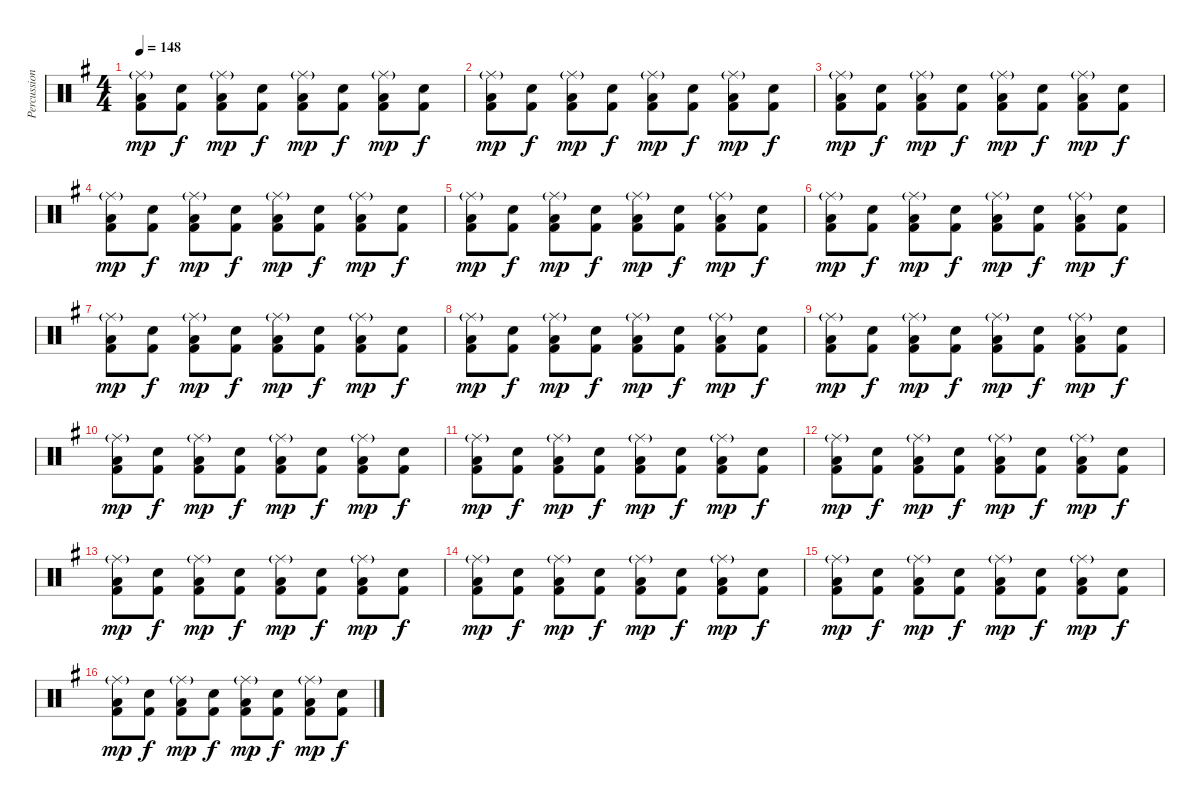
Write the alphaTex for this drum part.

\track ("Percussions" "Percussion") {instrument percussion}
\staff {score}
\articulation defaults
\ts (4 4)
\tempo 148
\clef neutral
\ks g
("Ride (middle)"{g} "Low Floor Tom (hit)" "Kick (hit) 2").8{dy mp} ("Electric Snare (hit)" "Kick (hit) 2").8{dy f} ("Ride (middle)"{g} "Low Floor Tom (hit)" "Kick (hit) 2").8{dy mp} ("Electric Snare (hit)" "Kick (hit) 2").8{dy f} ("Ride (middle)"{g} "Low Floor Tom (hit)" "Kick (hit) 2").8{dy mp} ("Electric Snare (hit)" "Kick (hit) 2").8{dy f} ("Ride (middle)"{g} "Low Floor Tom (hit)" "Kick (hit) 2").8{dy mp} ("Electric Snare (hit)" "Kick (hit) 2").8{dy f} |
("Ride (middle)"{g} "Low Floor Tom (hit)" "Kick (hit) 2").8{dy mp} ("Electric Snare (hit)" "Kick (hit) 2").8{dy f} ("Ride (middle)"{g} "Low Floor Tom (hit)" "Kick (hit) 2").8{dy mp} ("Electric Snare (hit)" "Kick (hit) 2").8{dy f} ("Ride (middle)"{g} "Low Floor Tom (hit)" "Kick (hit) 2").8{dy mp} ("Electric Snare (hit)" "Kick (hit) 2").8{dy f} ("Ride (middle)"{g} "Low Floor Tom (hit)" "Kick (hit) 2").8{dy mp} ("Electric Snare (hit)" "Kick (hit) 2").8{dy f} |
("Ride (middle)"{g} "Low Floor Tom (hit)" "Kick (hit) 2").8{dy mp} ("Electric Snare (hit)" "Kick (hit) 2").8{dy f} ("Ride (middle)"{g} "Low Floor Tom (hit)" "Kick (hit) 2").8{dy mp} ("Electric Snare (hit)" "Kick (hit) 2").8{dy f} ("Ride (middle)"{g} "Low Floor Tom (hit)" "Kick (hit) 2").8{dy mp} ("Electric Snare (hit)" "Kick (hit) 2").8{dy f} ("Ride (middle)"{g} "Low Floor Tom (hit)" "Kick (hit) 2").8{dy mp} ("Electric Snare (hit)" "Kick (hit) 2").8{dy f} |
("Ride (middle)"{g} "Low Floor Tom (hit)" "Kick (hit) 2").8{dy mp} ("Electric Snare (hit)" "Kick (hit) 2").8{dy f} ("Ride (middle)"{g} "Low Floor Tom (hit)" "Kick (hit) 2").8{dy mp} ("Electric Snare (hit)" "Kick (hit) 2").8{dy f} ("Ride (middle)"{g} "Low Floor Tom (hit)" "Kick (hit) 2").8{dy mp} ("Electric Snare (hit)" "Kick (hit) 2").8{dy f} ("Ride (middle)"{g} "Low Floor Tom (hit)" "Kick (hit) 2").8{dy mp} ("Electric Snare (hit)" "Kick (hit) 2").8{dy f} |
("Ride (middle)"{g} "Low Floor Tom (hit)" "Kick (hit) 2").8{dy mp} ("Electric Snare (hit)" "Kick (hit) 2").8{dy f} ("Ride (middle)"{g} "Low Floor Tom (hit)" "Kick (hit) 2").8{dy mp} ("Electric Snare (hit)" "Kick (hit) 2").8{dy f} ("Ride (middle)"{g} "Low Floor Tom (hit)" "Kick (hit) 2").8{dy mp} ("Electric Snare (hit)" "Kick (hit) 2").8{dy f} ("Ride (middle)"{g} "Low Floor Tom (hit)" "Kick (hit) 2").8{dy mp} ("Electric Snare (hit)" "Kick (hit) 2").8{dy f} |
("Ride (middle)"{g} "Low Floor Tom (hit)" "Kick (hit) 2").8{dy mp} ("Electric Snare (hit)" "Kick (hit) 2").8{dy f} ("Ride (middle)"{g} "Low Floor Tom (hit)" "Kick (hit) 2").8{dy mp} ("Electric Snare (hit)" "Kick (hit) 2").8{dy f} ("Ride (middle)"{g} "Low Floor Tom (hit)" "Kick (hit) 2").8{dy mp} ("Electric Snare (hit)" "Kick (hit) 2").8{dy f} ("Ride (middle)"{g} "Low Floor Tom (hit)" "Kick (hit) 2").8{dy mp} ("Electric Snare (hit)" "Kick (hit) 2").8{dy f} |
("Ride (middle)"{g} "Low Floor Tom (hit)" "Kick (hit) 2").8{dy mp} ("Electric Snare (hit)" "Kick (hit) 2").8{dy f} ("Ride (middle)"{g} "Low Floor Tom (hit)" "Kick (hit) 2").8{dy mp} ("Electric Snare (hit)" "Kick (hit) 2").8{dy f} ("Ride (middle)"{g} "Low Floor Tom (hit)" "Kick (hit) 2").8{dy mp} ("Electric Snare (hit)" "Kick (hit) 2").8{dy f} ("Ride (middle)"{g} "Low Floor Tom (hit)" "Kick (hit) 2").8{dy mp} ("Electric Snare (hit)" "Kick (hit) 2").8{dy f} |
("Ride (middle)"{g} "Low Floor Tom (hit)" "Kick (hit) 2").8{dy mp} ("Electric Snare (hit)" "Kick (hit) 2").8{dy f} ("Ride (middle)"{g} "Low Floor Tom (hit)" "Kick (hit) 2").8{dy mp} ("Electric Snare (hit)" "Kick (hit) 2").8{dy f} ("Ride (middle)"{g} "Low Floor Tom (hit)" "Kick (hit) 2").8{dy mp} ("Electric Snare (hit)" "Kick (hit) 2").8{dy f} ("Ride (middle)"{g} "Low Floor Tom (hit)" "Kick (hit) 2").8{dy mp} ("Electric Snare (hit)" "Kick (hit) 2").8{dy f} |
("Ride (middle)"{g} "Low Floor Tom (hit)" "Kick (hit) 2").8{dy mp} ("Electric Snare (hit)" "Kick (hit) 2").8{dy f} ("Ride (middle)"{g} "Low Floor Tom (hit)" "Kick (hit) 2").8{dy mp} ("Electric Snare (hit)" "Kick (hit) 2").8{dy f} ("Ride (middle)"{g} "Low Floor Tom (hit)" "Kick (hit) 2").8{dy mp} ("Electric Snare (hit)" "Kick (hit) 2").8{dy f} ("Ride (middle)"{g} "Low Floor Tom (hit)" "Kick (hit) 2").8{dy mp} ("Electric Snare (hit)" "Kick (hit) 2").8{dy f} |
("Ride (middle)"{g} "Low Floor Tom (hit)" "Kick (hit) 2").8{dy mp} ("Electric Snare (hit)" "Kick (hit) 2").8{dy f} ("Ride (middle)"{g} "Low Floor Tom (hit)" "Kick (hit) 2").8{dy mp} ("Electric Snare (hit)" "Kick (hit) 2").8{dy f} ("Ride (middle)"{g} "Low Floor Tom (hit)" "Kick (hit) 2").8{dy mp} ("Electric Snare (hit)" "Kick (hit) 2").8{dy f} ("Ride (middle)"{g} "Low Floor Tom (hit)" "Kick (hit) 2").8{dy mp} ("Electric Snare (hit)" "Kick (hit) 2").8{dy f} |
("Ride (middle)"{g} "Low Floor Tom (hit)" "Kick (hit) 2").8{dy mp} ("Electric Snare (hit)" "Kick (hit) 2").8{dy f} ("Ride (middle)"{g} "Low Floor Tom (hit)" "Kick (hit) 2").8{dy mp} ("Electric Snare (hit)" "Kick (hit) 2").8{dy f} ("Ride (middle)"{g} "Low Floor Tom (hit)" "Kick (hit) 2").8{dy mp} ("Electric Snare (hit)" "Kick (hit) 2").8{dy f} ("Ride (middle)"{g} "Low Floor Tom (hit)" "Kick (hit) 2").8{dy mp} ("Electric Snare (hit)" "Kick (hit) 2").8{dy f} |
("Ride (middle)"{g} "Low Floor Tom (hit)" "Kick (hit) 2").8{dy mp} ("Electric Snare (hit)" "Kick (hit) 2").8{dy f} ("Ride (middle)"{g} "Low Floor Tom (hit)" "Kick (hit) 2").8{dy mp} ("Electric Snare (hit)" "Kick (hit) 2").8{dy f} ("Ride (middle)"{g} "Low Floor Tom (hit)" "Kick (hit) 2").8{dy mp} ("Electric Snare (hit)" "Kick (hit) 2").8{dy f} ("Ride (middle)"{g} "Low Floor Tom (hit)" "Kick (hit) 2").8{dy mp} ("Electric Snare (hit)" "Kick (hit) 2").8{dy f} |
("Ride (middle)"{g} "Low Floor Tom (hit)" "Kick (hit) 2").8{dy mp} ("Electric Snare (hit)" "Kick (hit) 2").8{dy f} ("Ride (middle)"{g} "Low Floor Tom (hit)" "Kick (hit) 2").8{dy mp} ("Electric Snare (hit)" "Kick (hit) 2").8{dy f} ("Ride (middle)"{g} "Low Floor Tom (hit)" "Kick (hit) 2").8{dy mp} ("Electric Snare (hit)" "Kick (hit) 2").8{dy f} ("Ride (middle)"{g} "Low Floor Tom (hit)" "Kick (hit) 2").8{dy mp} ("Electric Snare (hit)" "Kick (hit) 2").8{dy f} |
("Ride (middle)"{g} "Low Floor Tom (hit)" "Kick (hit) 2").8{dy mp} ("Electric Snare (hit)" "Kick (hit) 2").8{dy f} ("Ride (middle)"{g} "Low Floor Tom (hit)" "Kick (hit) 2").8{dy mp} ("Electric Snare (hit)" "Kick (hit) 2").8{dy f} ("Ride (middle)"{g} "Low Floor Tom (hit)" "Kick (hit) 2").8{dy mp} ("Electric Snare (hit)" "Kick (hit) 2").8{dy f} ("Ride (middle)"{g} "Low Floor Tom (hit)" "Kick (hit) 2").8{dy mp} ("Electric Snare (hit)" "Kick (hit) 2").8{dy f} |
("Ride (middle)"{g} "Low Floor Tom (hit)" "Kick (hit) 2").8{dy mp} ("Electric Snare (hit)" "Kick (hit) 2").8{dy f} ("Ride (middle)"{g} "Low Floor Tom (hit)" "Kick (hit) 2").8{dy mp} ("Electric Snare (hit)" "Kick (hit) 2").8{dy f} ("Ride (middle)"{g} "Low Floor Tom (hit)" "Kick (hit) 2").8{dy mp} ("Electric Snare (hit)" "Kick (hit) 2").8{dy f} ("Ride (middle)"{g} "Low Floor Tom (hit)" "Kick (hit) 2").8{dy mp} ("Electric Snare (hit)" "Kick (hit) 2").8{dy f} |
("Ride (middle)"{g} "Low Floor Tom (hit)" "Kick (hit) 2").8{dy mp} ("Electric Snare (hit)" "Kick (hit) 2").8{dy f} ("Ride (middle)"{g} "Low Floor Tom (hit)" "Kick (hit) 2").8{dy mp} ("Electric Snare (hit)" "Kick (hit) 2").8{dy f} ("Ride (middle)"{g} "Low Floor Tom (hit)" "Kick (hit) 2").8{dy mp} ("Electric Snare (hit)" "Kick (hit) 2").8{dy f} ("Ride (middle)"{g} "Low Floor Tom (hit)" "Kick (hit) 2").8{dy mp} ("Electric Snare (hit)" "Kick (hit) 2").8{dy f}
